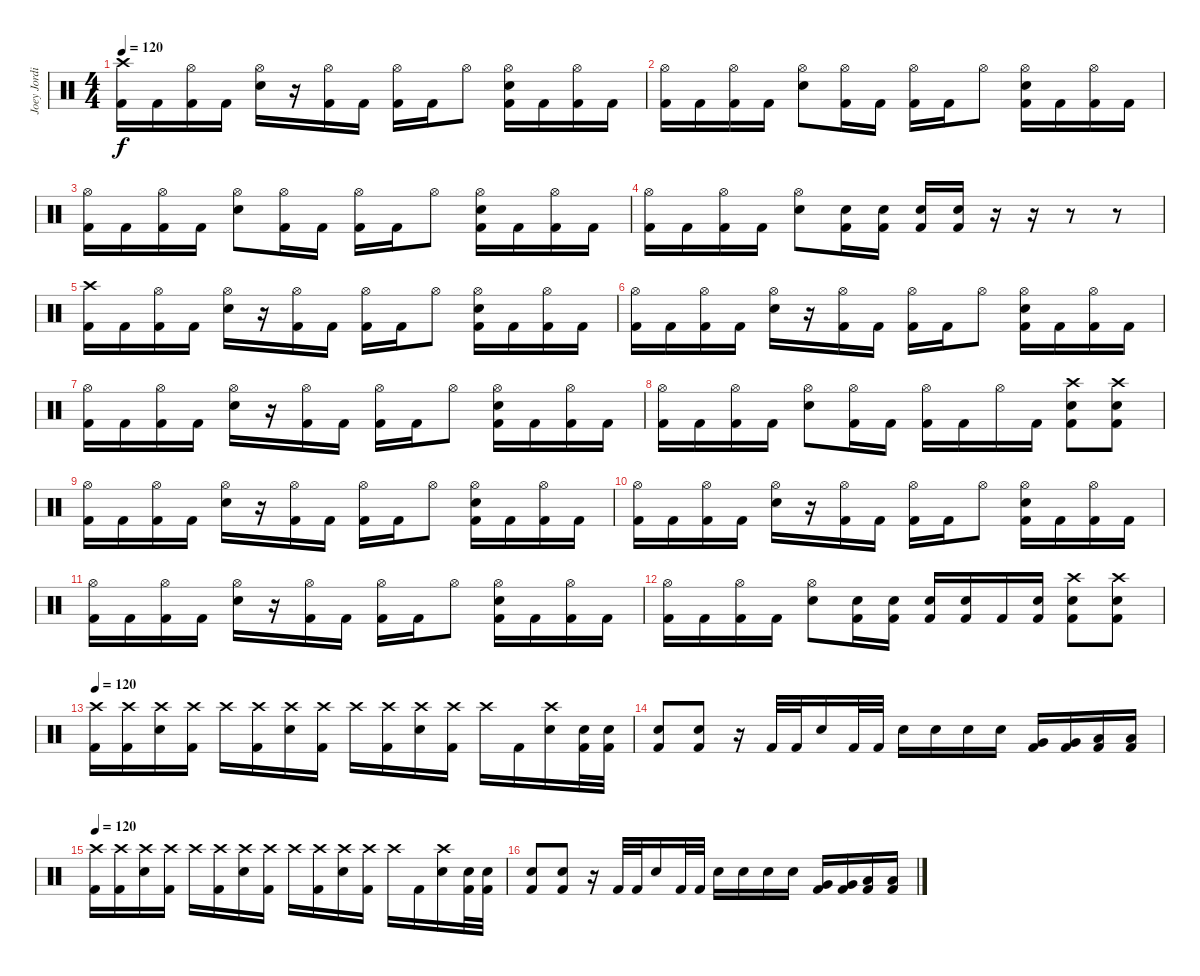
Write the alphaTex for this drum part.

\track ("Joey Jordison   #1" "Joey Jordi") {instrument percussion}
\staff {score}
\articulation defaults
\ts (4 4)
\tempo 120
\clef neutral
\ks c
("Crash high (hit)" "Kick (hit) 2").16{dy f} "Kick (hit) 2".16 ("Hi-Hat (open)" "Kick (hit) 2").16 "Kick (hit) 2".16 ("Hi-Hat (open)" "Electric Snare (hit)").16 r.16 ("Hi-Hat (open)" "Kick (hit) 2").16 "Kick (hit) 2".16 ("Hi-Hat (open)" "Kick (hit) 2").16 "Kick (hit) 2".16 "Hi-Hat (open)".8 ("Hi-Hat (open)" "Electric Snare (hit)" "Kick (hit) 2").16 "Kick (hit) 2".16 ("Hi-Hat (open)" "Kick (hit) 2").16 "Kick (hit) 2".16 |
("Hi-Hat (open)" "Kick (hit) 2").16 "Kick (hit) 2".16 ("Hi-Hat (open)" "Kick (hit) 2").16 "Kick (hit) 2".16 ("Hi-Hat (open)" "Electric Snare (hit)").8 ("Hi-Hat (open)" "Kick (hit) 2").16 "Kick (hit) 2".16 ("Hi-Hat (open)" "Kick (hit) 2").16 "Kick (hit) 2".16 "Hi-Hat (open)".8 ("Hi-Hat (open)" "Electric Snare (hit)" "Kick (hit) 2").16 "Kick (hit) 2".16 ("Hi-Hat (open)" "Kick (hit) 2").16 "Kick (hit) 2".16 |
("Hi-Hat (open)" "Kick (hit) 2").16 "Kick (hit) 2".16 ("Hi-Hat (open)" "Kick (hit) 2").16 "Kick (hit) 2".16 ("Hi-Hat (open)" "Electric Snare (hit)").8 ("Hi-Hat (open)" "Kick (hit) 2").16 "Kick (hit) 2".16 ("Hi-Hat (open)" "Kick (hit) 2").16 "Kick (hit) 2".16 "Hi-Hat (open)".8 ("Hi-Hat (open)" "Electric Snare (hit)" "Kick (hit) 2").16 "Kick (hit) 2".16 ("Hi-Hat (open)" "Kick (hit) 2").16 "Kick (hit) 2".16 |
("Hi-Hat (open)" "Kick (hit) 2").16 "Kick (hit) 2".16 ("Hi-Hat (open)" "Kick (hit) 2").16 "Kick (hit) 2".16 ("Hi-Hat (open)" "Electric Snare (hit)").8 ("Electric Snare (hit)" "Kick (hit) 2").16 ("Electric Snare (hit)" "Kick (hit) 2").16 ("Electric Snare (hit)" "Kick (hit) 2").16 ("Electric Snare (hit)" "Kick (hit) 2").16 r.16 r.16 r.8 r.8 |
("Crash high (hit)" "Kick (hit) 2").16 "Kick (hit) 2".16 ("Hi-Hat (open)" "Kick (hit) 2").16 "Kick (hit) 2".16 ("Hi-Hat (open)" "Electric Snare (hit)").16 r.16 ("Hi-Hat (open)" "Kick (hit) 2").16 "Kick (hit) 2".16 ("Hi-Hat (open)" "Kick (hit) 2").16 "Kick (hit) 2".16 "Hi-Hat (open)".8 ("Hi-Hat (open)" "Electric Snare (hit)" "Kick (hit) 2").16 "Kick (hit) 2".16 ("Hi-Hat (open)" "Kick (hit) 2").16 "Kick (hit) 2".16 |
("Hi-Hat (open)" "Kick (hit) 2").16 "Kick (hit) 2".16 ("Hi-Hat (open)" "Kick (hit) 2").16 "Kick (hit) 2".16 ("Hi-Hat (open)" "Electric Snare (hit)").16 r.16 ("Hi-Hat (open)" "Kick (hit) 2").16 "Kick (hit) 2".16 ("Hi-Hat (open)" "Kick (hit) 2").16 "Kick (hit) 2".16 "Hi-Hat (open)".8 ("Hi-Hat (open)" "Electric Snare (hit)" "Kick (hit) 2").16 "Kick (hit) 2".16 ("Hi-Hat (open)" "Kick (hit) 2").16 "Kick (hit) 2".16 |
("Hi-Hat (open)" "Kick (hit) 2").16 "Kick (hit) 2".16 ("Hi-Hat (open)" "Kick (hit) 2").16 "Kick (hit) 2".16 ("Hi-Hat (open)" "Electric Snare (hit)").16 r.16 ("Hi-Hat (open)" "Kick (hit) 2").16 "Kick (hit) 2".16 ("Hi-Hat (open)" "Kick (hit) 2").16 "Kick (hit) 2".16 "Hi-Hat (open)".8 ("Hi-Hat (open)" "Electric Snare (hit)" "Kick (hit) 2").16 "Kick (hit) 2".16 ("Hi-Hat (open)" "Kick (hit) 2").16 "Kick (hit) 2".16 |
("Hi-Hat (open)" "Kick (hit) 2").16 "Kick (hit) 2".16 ("Hi-Hat (open)" "Kick (hit) 2").16 "Kick (hit) 2".16 ("Hi-Hat (open)" "Electric Snare (hit)").8 ("Hi-Hat (open)" "Kick (hit) 2").16 "Kick (hit) 2".16 ("Hi-Hat (open)" "Kick (hit) 2").16 "Kick (hit) 2".16 "Hi-Hat (open)".16 "Kick (hit) 2".16 ("Electric Snare (hit)" "Crash high (hit)" "Kick (hit) 2").8 ("Electric Snare (hit)" "Crash high (hit)" "Kick (hit) 2").8 |
("Hi-Hat (open)" "Kick (hit) 2").16 "Kick (hit) 2".16 ("Hi-Hat (open)" "Kick (hit) 2").16 "Kick (hit) 2".16 ("Hi-Hat (open)" "Electric Snare (hit)").16 r.16 ("Hi-Hat (open)" "Kick (hit) 2").16 "Kick (hit) 2".16 ("Hi-Hat (open)" "Kick (hit) 2").16 "Kick (hit) 2".16 "Hi-Hat (open)".8 ("Hi-Hat (open)" "Electric Snare (hit)" "Kick (hit) 2").16 "Kick (hit) 2".16 ("Hi-Hat (open)" "Kick (hit) 2").16 "Kick (hit) 2".16 |
("Hi-Hat (open)" "Kick (hit) 2").16 "Kick (hit) 2".16 ("Hi-Hat (open)" "Kick (hit) 2").16 "Kick (hit) 2".16 ("Hi-Hat (open)" "Electric Snare (hit)").16 r.16 ("Hi-Hat (open)" "Kick (hit) 2").16 "Kick (hit) 2".16 ("Hi-Hat (open)" "Kick (hit) 2").16 "Kick (hit) 2".16 "Hi-Hat (open)".8 ("Hi-Hat (open)" "Electric Snare (hit)" "Kick (hit) 2").16 "Kick (hit) 2".16 ("Hi-Hat (open)" "Kick (hit) 2").16 "Kick (hit) 2".16 |
("Hi-Hat (open)" "Kick (hit) 2").16 "Kick (hit) 2".16 ("Hi-Hat (open)" "Kick (hit) 2").16 "Kick (hit) 2".16 ("Hi-Hat (open)" "Electric Snare (hit)").16 r.16 ("Hi-Hat (open)" "Kick (hit) 2").16 "Kick (hit) 2".16 ("Hi-Hat (open)" "Kick (hit) 2").16 "Kick (hit) 2".16 "Hi-Hat (open)".8 ("Hi-Hat (open)" "Electric Snare (hit)" "Kick (hit) 2").16 "Kick (hit) 2".16 ("Hi-Hat (open)" "Kick (hit) 2").16 "Kick (hit) 2".16 |
("Hi-Hat (open)" "Kick (hit) 2").16 "Kick (hit) 2".16 ("Hi-Hat (open)" "Kick (hit) 2").16 "Kick (hit) 2".16 ("Hi-Hat (open)" "Electric Snare (hit)").8 ("Electric Snare (hit)" "Kick (hit) 2").16 ("Electric Snare (hit)" "Kick (hit) 2").16 ("Electric Snare (hit)" "Kick (hit) 2").16 ("Electric Snare (hit)" "Kick (hit) 2").16 "Kick (hit) 2".16 ("Electric Snare (hit)" "Kick (hit) 2").16 ("Electric Snare (hit)" "Crash high (hit)" "Kick (hit) 2").8 ("Electric Snare (hit)" "Crash high (hit)" "Kick (hit) 2").8 |
\tempo 120
("Crash high (hit)" "Kick (hit) 2").16 ("Crash high (hit)" "Kick (hit) 2").16 ("Crash high (hit)" "Electric Snare (hit)").16 ("Crash high (hit)" "Kick (hit) 2").16 "Crash high (hit)".16 ("Crash high (hit)" "Kick (hit) 2").16 ("Crash high (hit)" "Electric Snare (hit)").16 ("Crash high (hit)" "Kick (hit) 2").16 "Crash high (hit)".16 ("Crash high (hit)" "Kick (hit) 2").16 ("Crash high (hit)" "Electric Snare (hit)").16 ("Crash high (hit)" "Kick (hit) 2").16 "Crash high (hit)".16 "Kick (hit) 2".16 ("Crash high (hit)" "Electric Snare (hit)").16 ("Electric Snare (hit)" "Kick (hit) 2").32 ("Electric Snare (hit)" "Kick (hit) 2").32 |
("Electric Snare (hit)" "Kick (hit) 2").8 ("Electric Snare (hit)" "Kick (hit) 2").8 r.16 "Kick (hit) 2".32 "Kick (hit) 2".32 "Electric Snare (hit)".16 "Kick (hit) 2".32 "Kick (hit) 2".32 "Electric Snare (hit)".16 "Electric Snare (hit)".16 "Snare (hit) 2".16 "Snare (hit) 2".16 ("Very Low Tom (hit)" "Kick (hit) 2").16 ("Very Low Tom (hit)" "Kick (hit) 2").16 ("Low Floor Tom (hit)" "Kick (hit) 2").16 ("Low Floor Tom (hit)" "Kick (hit) 2").16 |
\tempo 120
("Crash high (hit)" "Kick (hit) 2").16 ("Crash high (hit)" "Kick (hit) 2").16 ("Crash high (hit)" "Electric Snare (hit)").16 ("Crash high (hit)" "Kick (hit) 2").16 "Crash high (hit)".16 ("Crash high (hit)" "Kick (hit) 2").16 ("Crash high (hit)" "Electric Snare (hit)").16 ("Crash high (hit)" "Kick (hit) 2").16 "Crash high (hit)".16 ("Crash high (hit)" "Kick (hit) 2").16 ("Crash high (hit)" "Electric Snare (hit)").16 ("Crash high (hit)" "Kick (hit) 2").16 "Crash high (hit)".16 "Kick (hit) 2".16 ("Crash high (hit)" "Electric Snare (hit)").16 ("Electric Snare (hit)" "Kick (hit) 2").32 ("Electric Snare (hit)" "Kick (hit) 2").32 |
("Electric Snare (hit)" "Kick (hit) 2").8 ("Electric Snare (hit)" "Kick (hit) 2").8 r.16 "Kick (hit) 2".32 "Kick (hit) 2".32 "Electric Snare (hit)".16 "Kick (hit) 2".32 "Kick (hit) 2".32 "Electric Snare (hit)".16 "Electric Snare (hit)".16 "Snare (hit) 2".16 "Snare (hit) 2".16 ("Very Low Tom (hit)" "Kick (hit) 2").16 ("Very Low Tom (hit)" "Kick (hit) 2").16 ("Low Floor Tom (hit)" "Kick (hit) 2").16 ("Low Floor Tom (hit)" "Kick (hit) 2").16
